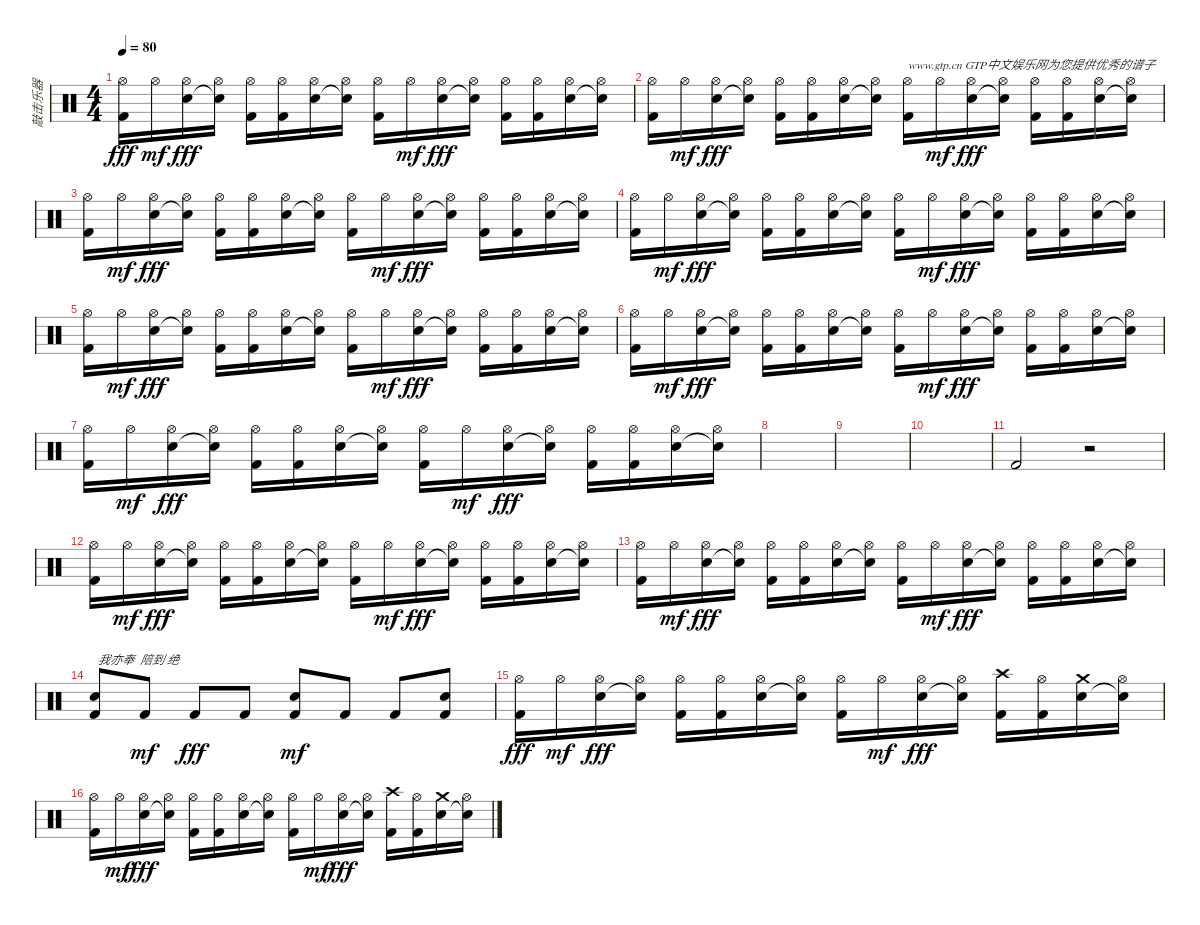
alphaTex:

\track ("敲击乐器" "敲击乐器") {instrument percussion}
\staff {score}
\articulation defaults
\ts (4 4)
\tempo 80
\clef neutral
\ks c
("Hi-Hat (open)" "Kick (hit) 2").16{dy fff} "Hi-Hat (open)".16{dy mf} ("Hi-Hat (open)" "Electric Snare (hit)").16{dy fff} ("Hi-Hat (open)" "Snare (hit)"{t}).16 ("Hi-Hat (open)" "Kick (hit) 2").16 ("Hi-Hat (open)" "Kick (hit) 2").16 ("Hi-Hat (open)" "Electric Snare (hit)").16 ("Hi-Hat (open)" "Snare (hit)"{t}).16 ("Hi-Hat (open)" "Kick (hit) 2").16 "Hi-Hat (open)".16{dy mf} ("Hi-Hat (open)" "Electric Snare (hit)").16{dy fff} ("Hi-Hat (open)" "Snare (hit)"{t}).16 ("Hi-Hat (open)" "Kick (hit) 2").16 ("Hi-Hat (open)" "Kick (hit) 2").16 ("Hi-Hat (open)" "Electric Snare (hit)").16 ("Hi-Hat (open)" "Snare (hit)"{t}).16 |
("Hi-Hat (open)" "Kick (hit) 2").16 "Hi-Hat (open)".16{dy mf} ("Hi-Hat (open)" "Electric Snare (hit)").16{dy fff} ("Hi-Hat (open)" "Snare (hit)"{t}).16 ("Hi-Hat (open)" "Kick (hit) 2").16 ("Hi-Hat (open)" "Kick (hit) 2").16 ("Hi-Hat (open)" "Electric Snare (hit)").16 ("Hi-Hat (open)" "Snare (hit)"{t}).16 ("Hi-Hat (open)" "Kick (hit) 2").16{txt "www.gtp.cn GTP中文娱乐网为您提供优秀的谱子"} "Hi-Hat (open)".16{dy mf} ("Hi-Hat (open)" "Electric Snare (hit)").16{dy fff} ("Hi-Hat (open)" "Snare (hit)"{t}).16 ("Hi-Hat (open)" "Kick (hit) 2").16 ("Hi-Hat (open)" "Kick (hit) 2").16 ("Hi-Hat (open)" "Electric Snare (hit)").16 ("Hi-Hat (open)" "Snare (hit)"{t}).16 |
("Hi-Hat (open)" "Kick (hit) 2").16 "Hi-Hat (open)".16{dy mf} ("Hi-Hat (open)" "Electric Snare (hit)").16{dy fff} ("Hi-Hat (open)" "Snare (hit)"{t}).16 ("Hi-Hat (open)" "Kick (hit) 2").16 ("Hi-Hat (open)" "Kick (hit) 2").16 ("Hi-Hat (open)" "Electric Snare (hit)").16 ("Hi-Hat (open)" "Snare (hit)"{t}).16 ("Hi-Hat (open)" "Kick (hit) 2").16 "Hi-Hat (open)".16{dy mf} ("Hi-Hat (open)" "Electric Snare (hit)").16{dy fff} ("Hi-Hat (open)" "Snare (hit)"{t}).16 ("Hi-Hat (open)" "Kick (hit) 2").16 ("Hi-Hat (open)" "Kick (hit) 2").16 ("Hi-Hat (open)" "Electric Snare (hit)").16 ("Hi-Hat (open)" "Snare (hit)"{t}).16 |
("Hi-Hat (open)" "Kick (hit) 2").16 "Hi-Hat (open)".16{dy mf} ("Hi-Hat (open)" "Electric Snare (hit)").16{dy fff} ("Hi-Hat (open)" "Snare (hit)"{t}).16 ("Hi-Hat (open)" "Kick (hit) 2").16 ("Hi-Hat (open)" "Kick (hit) 2").16 ("Hi-Hat (open)" "Electric Snare (hit)").16 ("Hi-Hat (open)" "Snare (hit)"{t}).16 ("Hi-Hat (open)" "Kick (hit) 2").16 "Hi-Hat (open)".16{dy mf} ("Hi-Hat (open)" "Electric Snare (hit)").16{dy fff} ("Hi-Hat (open)" "Snare (hit)"{t}).16 ("Hi-Hat (open)" "Kick (hit) 2").16 ("Hi-Hat (open)" "Kick (hit) 2").16 ("Hi-Hat (open)" "Electric Snare (hit)").16 ("Hi-Hat (open)" "Snare (hit)"{t}).16 |
("Hi-Hat (open)" "Kick (hit) 2").16 "Hi-Hat (open)".16{dy mf} ("Hi-Hat (open)" "Electric Snare (hit)").16{dy fff} ("Hi-Hat (open)" "Snare (hit)"{t}).16 ("Hi-Hat (open)" "Kick (hit) 2").16 ("Hi-Hat (open)" "Kick (hit) 2").16 ("Hi-Hat (open)" "Electric Snare (hit)").16 ("Hi-Hat (open)" "Snare (hit)"{t}).16 ("Hi-Hat (open)" "Kick (hit) 2").16 "Hi-Hat (open)".16{dy mf} ("Hi-Hat (open)" "Electric Snare (hit)").16{dy fff} ("Hi-Hat (open)" "Snare (hit)"{t}).16 ("Hi-Hat (open)" "Kick (hit) 2").16 ("Hi-Hat (open)" "Kick (hit) 2").16 ("Hi-Hat (open)" "Electric Snare (hit)").16 ("Hi-Hat (open)" "Snare (hit)"{t}).16 |
("Hi-Hat (open)" "Kick (hit) 2").16 "Hi-Hat (open)".16{dy mf} ("Hi-Hat (open)" "Electric Snare (hit)").16{dy fff} ("Hi-Hat (open)" "Snare (hit)"{t}).16 ("Hi-Hat (open)" "Kick (hit) 2").16 ("Hi-Hat (open)" "Kick (hit) 2").16 ("Hi-Hat (open)" "Electric Snare (hit)").16 ("Hi-Hat (open)" "Snare (hit)"{t}).16 ("Hi-Hat (open)" "Kick (hit) 2").16 "Hi-Hat (open)".16{dy mf} ("Hi-Hat (open)" "Electric Snare (hit)").16{dy fff} ("Hi-Hat (open)" "Snare (hit)"{t}).16 ("Hi-Hat (open)" "Kick (hit) 2").16 ("Hi-Hat (open)" "Kick (hit) 2").16 ("Hi-Hat (open)" "Electric Snare (hit)").16 ("Hi-Hat (open)" "Snare (hit)"{t}).16 |
("Hi-Hat (open)" "Kick (hit) 2").16 "Hi-Hat (open)".16{dy mf} ("Hi-Hat (open)" "Electric Snare (hit)").16{dy fff} ("Hi-Hat (open)" "Snare (hit)"{t}).16 ("Hi-Hat (open)" "Kick (hit) 2").16 ("Hi-Hat (open)" "Kick (hit) 2").16 ("Hi-Hat (open)" "Electric Snare (hit)").16 ("Hi-Hat (open)" "Snare (hit)"{t}).16 ("Hi-Hat (open)" "Kick (hit) 2").16 "Hi-Hat (open)".16{dy mf} ("Hi-Hat (open)" "Electric Snare (hit)").16{dy fff} ("Hi-Hat (open)" "Snare (hit)"{t}).16 ("Hi-Hat (open)" "Kick (hit) 2").16 ("Hi-Hat (open)" "Kick (hit) 2").16 ("Hi-Hat (open)" "Electric Snare (hit)").16 ("Hi-Hat (open)" "Snare (hit)"{t}).16 |
|
|
|
"Kick (hit) 2".2 r.2 |
("Hi-Hat (open)" "Kick (hit) 2").16 "Hi-Hat (open)".16{dy mf} ("Hi-Hat (open)" "Electric Snare (hit)").16{dy fff} ("Hi-Hat (open)" "Snare (hit)"{t}).16 ("Hi-Hat (open)" "Kick (hit) 2").16 ("Hi-Hat (open)" "Kick (hit) 2").16 ("Hi-Hat (open)" "Electric Snare (hit)").16 ("Hi-Hat (open)" "Snare (hit)"{t}).16 ("Hi-Hat (open)" "Kick (hit) 2").16 "Hi-Hat (open)".16{dy mf} ("Hi-Hat (open)" "Electric Snare (hit)").16{dy fff} ("Hi-Hat (open)" "Snare (hit)"{t}).16 ("Hi-Hat (open)" "Kick (hit) 2").16 ("Hi-Hat (open)" "Kick (hit) 2").16 ("Hi-Hat (open)" "Electric Snare (hit)").16 ("Hi-Hat (open)" "Snare (hit)"{t}).16 |
("Hi-Hat (open)" "Kick (hit) 2").16 "Hi-Hat (open)".16{dy mf} ("Hi-Hat (open)" "Electric Snare (hit)").16{dy fff} ("Hi-Hat (open)" "Snare (hit)"{t}).16 ("Hi-Hat (open)" "Kick (hit) 2").16 ("Hi-Hat (open)" "Kick (hit) 2").16 ("Hi-Hat (open)" "Electric Snare (hit)").16 ("Hi-Hat (open)" "Snare (hit)"{t}).16 ("Hi-Hat (open)" "Kick (hit) 2").16 "Hi-Hat (open)".16{dy mf} ("Hi-Hat (open)" "Electric Snare (hit)").16{dy fff} ("Hi-Hat (open)" "Snare (hit)"{t}).16 ("Hi-Hat (open)" "Kick (hit) 2").16 ("Hi-Hat (open)" "Kick (hit) 2").16 ("Hi-Hat (open)" "Electric Snare (hit)").16 ("Hi-Hat (open)" "Snare (hit)"{t}).16 |
("Electric Snare (hit)" "Kick (hit) 2").8{txt " 我亦奉  陪到 绝"} "Kick (hit) 2".8{dy mf} "Kick (hit) 2".8{dy fff} "Kick (hit) 2".8 ("Electric Snare (hit)" "Kick (hit) 2").8{dy mf} "Kick (hit) 2".8 "Kick (hit) 2".8 ("Electric Snare (hit)" "Kick (hit) 2").8 |
("Hi-Hat (open)" "Kick (hit) 2").16{dy fff} "Hi-Hat (open)".16{dy mf} ("Hi-Hat (open)" "Electric Snare (hit)").16{dy fff} ("Hi-Hat (open)" "Snare (hit)"{t}).16 ("Hi-Hat (open)" "Kick (hit) 2").16 ("Hi-Hat (open)" "Kick (hit) 2").16 ("Hi-Hat (open)" "Electric Snare (hit)").16 ("Hi-Hat (open)" "Snare (hit)"{t}).16 ("Hi-Hat (open)" "Kick (hit) 2").16 "Hi-Hat (open)".16{dy mf} ("Hi-Hat (open)" "Electric Snare (hit)").16{dy fff} ("Hi-Hat (open)" "Snare (hit)"{t}).16 ("Crash high (hit)" "Kick (hit) 2").16 ("Hi-Hat (open)" "Kick (hit) 2").16 ("Crash medium (hit)" "Electric Snare (hit)").16 ("Hi-Hat (open)" "Snare (hit)"{t}).16 |
("Hi-Hat (open)" "Kick (hit) 2").16 "Hi-Hat (open)".16{dy mf} ("Hi-Hat (open)" "Electric Snare (hit)").16{dy fff} ("Hi-Hat (open)" "Snare (hit)"{t}).16 ("Hi-Hat (open)" "Kick (hit) 2").16 ("Hi-Hat (open)" "Kick (hit) 2").16 ("Hi-Hat (open)" "Electric Snare (hit)").16 ("Hi-Hat (open)" "Snare (hit)"{t}).16 ("Hi-Hat (open)" "Kick (hit) 2").16 "Hi-Hat (open)".16{dy mf} ("Hi-Hat (open)" "Electric Snare (hit)").16{dy fff} ("Hi-Hat (open)" "Snare (hit)"{t}).16 ("Crash high (hit)" "Kick (hit) 2").16 ("Hi-Hat (open)" "Kick (hit) 2").16 ("Crash medium (hit)" "Electric Snare (hit)").16 ("Hi-Hat (open)" "Snare (hit)"{t}).16
